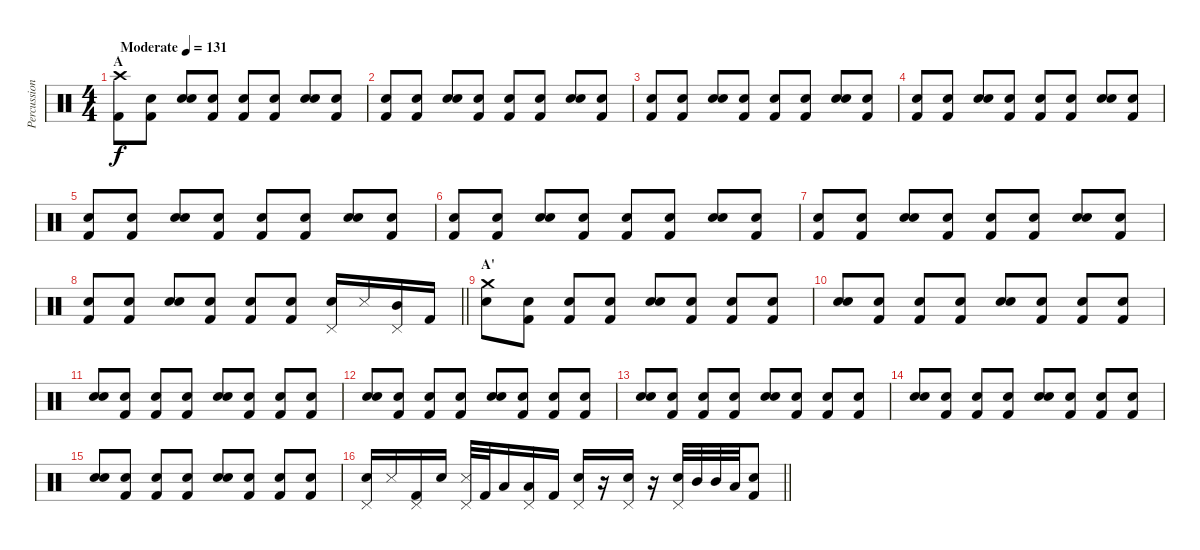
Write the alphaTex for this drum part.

\track ("Percussion" "Percussion") {instrument percussion}
\staff {score}
\articulation defaults
\ts (4 4)
\section ("" "A")
\tempo (131 "Moderate")
\clef neutral
\ks c
("Crash high (hit)" "Kick (hit) 2").8{dy f} ("Snare (hit)" "Kick (hit) 2").8 ("Snare (hit)" "Snare (hit) 2").8 ("Snare (hit)" "Kick (hit) 2").8 ("Snare (hit)" "Kick (hit) 2").8 ("Snare (hit)" "Kick (hit) 2").8 ("Snare (hit)" "Snare (hit) 2").8 ("Snare (hit)" "Kick (hit) 2").8 |
("Snare (hit)" "Kick (hit) 2").8 ("Snare (hit)" "Kick (hit) 2").8 ("Snare (hit)" "Snare (hit) 2").8 ("Snare (hit)" "Kick (hit) 2").8 ("Snare (hit)" "Kick (hit) 2").8 ("Snare (hit)" "Kick (hit) 2").8 ("Snare (hit)" "Snare (hit) 2").8 ("Snare (hit)" "Kick (hit) 2").8 |
("Snare (hit)" "Kick (hit) 2").8 ("Snare (hit)" "Kick (hit) 2").8 ("Snare (hit)" "Snare (hit) 2").8 ("Snare (hit)" "Kick (hit) 2").8 ("Snare (hit)" "Kick (hit) 2").8 ("Snare (hit)" "Kick (hit) 2").8 ("Snare (hit)" "Snare (hit) 2").8 ("Snare (hit)" "Kick (hit) 2").8 |
("Snare (hit)" "Kick (hit) 2").8 ("Snare (hit)" "Kick (hit) 2").8 ("Snare (hit)" "Snare (hit) 2").8 ("Snare (hit)" "Kick (hit) 2").8 ("Snare (hit)" "Kick (hit) 2").8 ("Snare (hit)" "Kick (hit) 2").8 ("Snare (hit)" "Snare (hit) 2").8 ("Snare (hit)" "Kick (hit) 2").8 |
("Snare (hit)" "Kick (hit) 2").8 ("Snare (hit)" "Kick (hit) 2").8 ("Snare (hit)" "Snare (hit) 2").8 ("Snare (hit)" "Kick (hit) 2").8 ("Snare (hit)" "Kick (hit) 2").8 ("Snare (hit)" "Kick (hit) 2").8 ("Snare (hit)" "Snare (hit) 2").8 ("Snare (hit)" "Kick (hit) 2").8 |
("Snare (hit)" "Kick (hit) 2").8 ("Snare (hit)" "Kick (hit) 2").8 ("Snare (hit)" "Snare (hit) 2").8 ("Snare (hit)" "Kick (hit) 2").8 ("Snare (hit)" "Kick (hit) 2").8 ("Snare (hit)" "Kick (hit) 2").8 ("Snare (hit)" "Snare (hit) 2").8 ("Snare (hit)" "Kick (hit) 2").8 |
("Snare (hit)" "Kick (hit) 2").8 ("Snare (hit)" "Kick (hit) 2").8 ("Snare (hit)" "Snare (hit) 2").8 ("Snare (hit)" "Kick (hit) 2").8 ("Snare (hit)" "Kick (hit) 2").8 ("Snare (hit)" "Kick (hit) 2").8 ("Snare (hit)" "Snare (hit) 2").8 ("Snare (hit)" "Kick (hit) 2").8 |
\barLineRight lightlight
("Snare (hit)" "Kick (hit) 2").8 ("Snare (hit)" "Kick (hit) 2").8 ("Snare (hit)" "Snare (hit) 2").8 ("Snare (hit)" "Kick (hit) 2").8 ("Snare (hit)" "Kick (hit) 2").8 ("Snare (hit)" "Kick (hit) 2").8 ("Pedal Hi-Hat (hit)" "Snare (hit) 2").16 "Metronome (hit)".16 ("Pedal Hi-Hat (hit)" "Mid Tom (hit)").16 "Kick (hit) 2".16 |
\section ("" "A'")
("Crash medium (hit)" "Snare (hit) 2").8 ("Snare (hit)" "Kick (hit) 2").8 ("Snare (hit)" "Kick (hit) 2").8 ("Snare (hit)" "Kick (hit) 2").8 ("Snare (hit)" "Snare (hit) 2").8 ("Snare (hit)" "Kick (hit) 2").8 ("Snare (hit)" "Kick (hit) 2").8 ("Snare (hit)" "Kick (hit) 2").8 |
("Snare (hit)" "Snare (hit) 2").8 ("Snare (hit)" "Kick (hit) 2").8 ("Snare (hit)" "Kick (hit) 2").8 ("Snare (hit)" "Kick (hit) 2").8 ("Snare (hit)" "Snare (hit) 2").8 ("Snare (hit)" "Kick (hit) 2").8 ("Snare (hit)" "Kick (hit) 2").8 ("Snare (hit)" "Kick (hit) 2").8 |
("Snare (hit)" "Snare (hit) 2").8 ("Snare (hit)" "Kick (hit) 2").8 ("Snare (hit)" "Kick (hit) 2").8 ("Snare (hit)" "Kick (hit) 2").8 ("Snare (hit)" "Snare (hit) 2").8 ("Snare (hit)" "Kick (hit) 2").8 ("Snare (hit)" "Kick (hit) 2").8 ("Snare (hit)" "Kick (hit) 2").8 |
("Snare (hit)" "Snare (hit) 2").8 ("Snare (hit)" "Kick (hit) 2").8 ("Snare (hit)" "Kick (hit) 2").8 ("Snare (hit)" "Kick (hit) 2").8 ("Snare (hit)" "Snare (hit) 2").8 ("Snare (hit)" "Kick (hit) 2").8 ("Snare (hit)" "Kick (hit) 2").8 ("Snare (hit)" "Kick (hit) 2").8 |
("Snare (hit)" "Snare (hit) 2").8 ("Snare (hit)" "Kick (hit) 2").8 ("Snare (hit)" "Kick (hit) 2").8 ("Snare (hit)" "Kick (hit) 2").8 ("Snare (hit)" "Snare (hit) 2").8 ("Snare (hit)" "Kick (hit) 2").8 ("Snare (hit)" "Kick (hit) 2").8 ("Snare (hit)" "Kick (hit) 2").8 |
("Snare (hit)" "Snare (hit) 2").8 ("Snare (hit)" "Kick (hit) 2").8 ("Snare (hit)" "Kick (hit) 2").8 ("Snare (hit)" "Kick (hit) 2").8 ("Snare (hit)" "Snare (hit) 2").8 ("Snare (hit)" "Kick (hit) 2").8 ("Snare (hit)" "Kick (hit) 2").8 ("Snare (hit)" "Kick (hit) 2").8 |
("Snare (hit)" "Snare (hit) 2").8 ("Snare (hit)" "Kick (hit) 2").8 ("Snare (hit)" "Kick (hit) 2").8 ("Snare (hit)" "Kick (hit) 2").8 ("Snare (hit)" "Snare (hit) 2").8 ("Snare (hit)" "Kick (hit) 2").8 ("Snare (hit)" "Kick (hit) 2").8 ("Snare (hit)" "Kick (hit) 2").8 |
\barLineRight lightlight
("Pedal Hi-Hat (hit)" "Snare (hit) 2").16 "Metronome (hit)".16 ("Pedal Hi-Hat (hit)" "Kick (hit) 2").16 "Snare (hit) 2".16 ("Pedal Hi-Hat (hit)" "Metronome (hit)").32 "Kick (hit) 2".32 "Low Floor Tom (hit)".16 ("Pedal Hi-Hat (hit)" "Low Floor Tom (hit)").16 "Kick (hit) 2".16 ("Pedal Hi-Hat (hit)" "Snare (hit) 2").16 r.16 ("Pedal Hi-Hat (hit)" "Snare (hit) 2").16 r.16 ("Pedal Hi-Hat (hit)" "Snare (hit) 2").32 "Mid Tom (hit)".32 "Mid Tom (hit)".32 "Low Tom (hit)".32 ("Snare (hit)" "Kick (hit) 2").8
